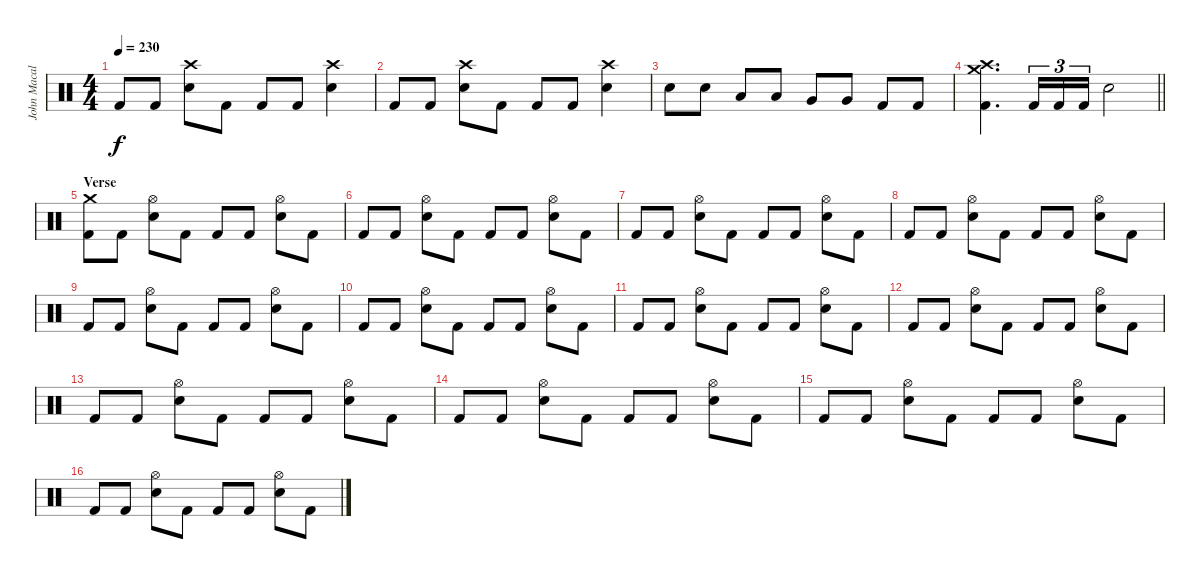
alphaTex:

\track ("John Macaluso" "John Macal") {instrument percussion}
\staff {score}
\articulation defaults
\ts (4 4)
\tempo 230
\clef neutral
\ks c "Kick (hit) 2".8{dy f} "Kick (hit) 2".8
("Crash high (hit)" "Snare (hit) 2").8 "Kick (hit) 2".8 "Kick (hit) 2".8 "Kick (hit) 2".8 ("Crash high (hit)" "Snare (hit) 2").4 |
"Kick (hit) 2".8 "Kick (hit) 2".8 ("Crash high (hit)" "Snare (hit) 2").8 "Kick (hit) 2".8 "Kick (hit) 2".8 "Kick (hit) 2".8 ("Crash high (hit)" "Snare (hit) 2").4 |
"Snare (hit) 2".8 "Snare (hit) 2".8 "Low Tom (hit)".8 "Low Tom (hit)".8 "Very Low Tom (hit)".8 "Very Low Tom (hit)".8 "Kick (hit) 2".8 "Kick (hit) 2".8 |
\barLineRight lightlight
("Crash medium (hit)" "Crash high (hit)" "Kick (hit) 2").4{d} "Kick (hit) 2".16{tu (3 2)} "Kick (hit) 2".16{tu (3 2)} "Kick (hit) 2".16{tu (3 2)} "Snare (hit) 2".2 |
\section ("" "Verse")
("Crash medium (hit)" "Kick (hit) 2").8 "Kick (hit) 2".8 ("Hi-Hat (open)" "Snare (hit) 2").8 "Kick (hit) 2".8 "Kick (hit) 2".8 "Kick (hit) 2".8 ("Hi-Hat (open)" "Snare (hit) 2").8 "Kick (hit) 2".8 |
"Kick (hit) 2".8 "Kick (hit) 2".8 ("Hi-Hat (open)" "Snare (hit) 2").8 "Kick (hit) 2".8 "Kick (hit) 2".8 "Kick (hit) 2".8 ("Hi-Hat (open)" "Snare (hit) 2").8 "Kick (hit) 2".8 |
"Kick (hit) 2".8 "Kick (hit) 2".8 ("Hi-Hat (open)" "Snare (hit) 2").8 "Kick (hit) 2".8 "Kick (hit) 2".8 "Kick (hit) 2".8 ("Hi-Hat (open)" "Snare (hit) 2").8 "Kick (hit) 2".8 |
"Kick (hit) 2".8 "Kick (hit) 2".8 ("Hi-Hat (open)" "Snare (hit) 2").8 "Kick (hit) 2".8 "Kick (hit) 2".8 "Kick (hit) 2".8 ("Hi-Hat (open)" "Snare (hit) 2").8 "Kick (hit) 2".8 |
"Kick (hit) 2".8 "Kick (hit) 2".8 ("Hi-Hat (open)" "Snare (hit) 2").8 "Kick (hit) 2".8 "Kick (hit) 2".8 "Kick (hit) 2".8 ("Hi-Hat (open)" "Snare (hit) 2").8 "Kick (hit) 2".8 |
"Kick (hit) 2".8 "Kick (hit) 2".8 ("Hi-Hat (open)" "Snare (hit) 2").8 "Kick (hit) 2".8 "Kick (hit) 2".8 "Kick (hit) 2".8 ("Hi-Hat (open)" "Snare (hit) 2").8 "Kick (hit) 2".8 |
"Kick (hit) 2".8 "Kick (hit) 2".8 ("Hi-Hat (open)" "Snare (hit) 2").8 "Kick (hit) 2".8 "Kick (hit) 2".8 "Kick (hit) 2".8 ("Hi-Hat (open)" "Snare (hit) 2").8 "Kick (hit) 2".8 |
"Kick (hit) 2".8 "Kick (hit) 2".8 ("Hi-Hat (open)" "Snare (hit) 2").8 "Kick (hit) 2".8 "Kick (hit) 2".8 "Kick (hit) 2".8 ("Hi-Hat (open)" "Snare (hit) 2").8 "Kick (hit) 2".8 |
"Kick (hit) 2".8 "Kick (hit) 2".8 ("Hi-Hat (open)" "Snare (hit) 2").8 "Kick (hit) 2".8 "Kick (hit) 2".8 "Kick (hit) 2".8 ("Hi-Hat (open)" "Snare (hit) 2").8 "Kick (hit) 2".8 |
"Kick (hit) 2".8 "Kick (hit) 2".8 ("Hi-Hat (open)" "Snare (hit) 2").8 "Kick (hit) 2".8 "Kick (hit) 2".8 "Kick (hit) 2".8 ("Hi-Hat (open)" "Snare (hit) 2").8 "Kick (hit) 2".8 |
"Kick (hit) 2".8 "Kick (hit) 2".8 ("Hi-Hat (open)" "Snare (hit) 2").8 "Kick (hit) 2".8 "Kick (hit) 2".8 "Kick (hit) 2".8 ("Hi-Hat (open)" "Snare (hit) 2").8 "Kick (hit) 2".8 |
"Kick (hit) 2".8 "Kick (hit) 2".8 ("Hi-Hat (open)" "Snare (hit) 2").8 "Kick (hit) 2".8 "Kick (hit) 2".8 "Kick (hit) 2".8 ("Hi-Hat (open)" "Snare (hit) 2").8 "Kick (hit) 2".8
